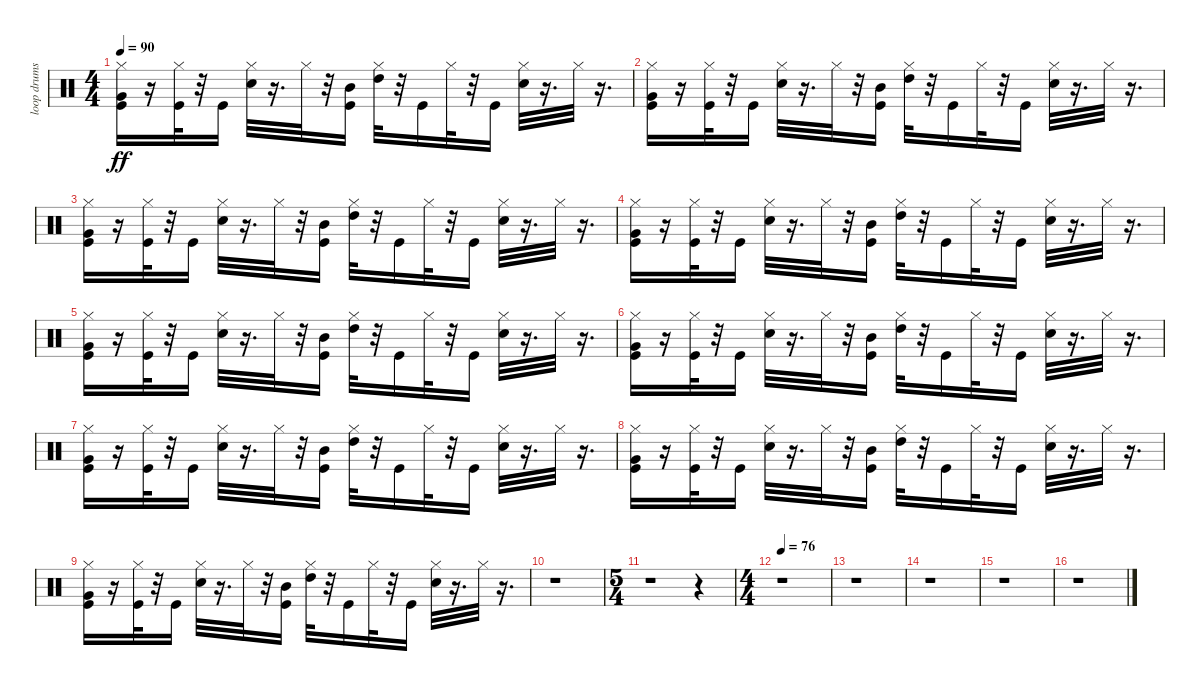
\track ("loop drums" "loop drums") {instrument percussion}
\staff {score}
\articulation defaults
\ts (4 4)
\tempo 90
\clef neutral
\ks c
("Very Low Tom (hit)" "Kick (hit)" "Hi-Hat (closed)").16{dy ff} r.16 ("Kick (hit)" "Hi-Hat (closed)").32 r.32 "Kick (hit)".16 ("Hi-Hat (closed)" "Electric Snare (hit)").32 r.16{d} "Hi-Hat (closed)".32 r.32 ("Kick (hit)" "Mid Tom (hit)").16 ("Hi-Hat (closed)" "High Tom (hit)").32 r.32 "Kick (hit)".16 "Hi-Hat (closed)".32 r.32 "Kick (hit)".16 ("Hi-Hat (closed)" "Electric Snare (hit)").32 r.16{d} "Hi-Hat (closed)".32 r.16{d} |
("Very Low Tom (hit)" "Kick (hit)" "Hi-Hat (closed)").16 r.16 ("Kick (hit)" "Hi-Hat (closed)").32 r.32 "Kick (hit)".16 ("Hi-Hat (closed)" "Electric Snare (hit)").32 r.16{d} "Hi-Hat (closed)".32 r.32 ("Kick (hit)" "Mid Tom (hit)").16 ("Hi-Hat (closed)" "High Tom (hit)").32 r.32 "Kick (hit)".16 "Hi-Hat (closed)".32 r.32 "Kick (hit)".16 ("Hi-Hat (closed)" "Electric Snare (hit)").32 r.16{d} "Hi-Hat (closed)".32 r.16{d} |
("Kick (hit)" "Hi-Hat (closed)" "Very Low Tom (hit)").16 r.16 ("Kick (hit)" "Hi-Hat (closed)").32 r.32 "Kick (hit)".16 ("Hi-Hat (closed)" "Electric Snare (hit)").32 r.16{d} "Hi-Hat (closed)".32 r.32 ("Kick (hit)" "Mid Tom (hit)").16 ("Hi-Hat (closed)" "High Tom (hit)").32 r.32 "Kick (hit)".16 "Hi-Hat (closed)".32 r.32 "Kick (hit)".16 ("Hi-Hat (closed)" "Electric Snare (hit)").32 r.16{d} "Hi-Hat (closed)".32 r.16{d} |
("Very Low Tom (hit)" "Kick (hit)" "Hi-Hat (closed)").16 r.16 ("Kick (hit)" "Hi-Hat (closed)").32 r.32 "Kick (hit)".16 ("Hi-Hat (closed)" "Electric Snare (hit)").32 r.16{d} "Hi-Hat (closed)".32 r.32 ("Kick (hit)" "Mid Tom (hit)").16 ("Hi-Hat (closed)" "High Tom (hit)").32 r.32 "Kick (hit)".16 "Hi-Hat (closed)".32 r.32 "Kick (hit)".16 ("Hi-Hat (closed)" "Electric Snare (hit)").32 r.16{d} "Hi-Hat (closed)".32 r.16{d} |
("Very Low Tom (hit)" "Kick (hit)" "Hi-Hat (closed)").16 r.16 ("Kick (hit)" "Hi-Hat (closed)").32 r.32 "Kick (hit)".16 ("Hi-Hat (closed)" "Electric Snare (hit)").32 r.16{d} "Hi-Hat (closed)".32 r.32 ("Kick (hit)" "Mid Tom (hit)").16 ("Hi-Hat (closed)" "High Tom (hit)").32 r.32 "Kick (hit)".16 "Hi-Hat (closed)".32 r.32 "Kick (hit)".16 ("Hi-Hat (closed)" "Electric Snare (hit)").32 r.16{d} "Hi-Hat (closed)".32 r.16{d} |
("Very Low Tom (hit)" "Kick (hit)" "Hi-Hat (closed)").16 r.16 ("Kick (hit)" "Hi-Hat (closed)").32 r.32 "Kick (hit)".16 ("Hi-Hat (closed)" "Electric Snare (hit)").32 r.16{d} "Hi-Hat (closed)".32 r.32 ("Kick (hit)" "Mid Tom (hit)").16 ("Hi-Hat (closed)" "High Tom (hit)").32 r.32 "Kick (hit)".16 "Hi-Hat (closed)".32 r.32 "Kick (hit)".16 ("Hi-Hat (closed)" "Electric Snare (hit)").32 r.16{d} "Hi-Hat (closed)".32 r.16{d} |
("Kick (hit)" "Hi-Hat (closed)" "Very Low Tom (hit)").16 r.16 ("Kick (hit)" "Hi-Hat (closed)").32 r.32 "Kick (hit)".16 ("Hi-Hat (closed)" "Electric Snare (hit)").32 r.16{d} "Hi-Hat (closed)".32 r.32 ("Kick (hit)" "Mid Tom (hit)").16 ("Hi-Hat (closed)" "High Tom (hit)").32 r.32 "Kick (hit)".16 "Hi-Hat (closed)".32 r.32 "Kick (hit)".16 ("Hi-Hat (closed)" "Electric Snare (hit)").32 r.16{d} "Hi-Hat (closed)".32 r.16{d} |
("Very Low Tom (hit)" "Kick (hit)" "Hi-Hat (closed)").16 r.16 ("Kick (hit)" "Hi-Hat (closed)").32 r.32 "Kick (hit)".16 ("Hi-Hat (closed)" "Electric Snare (hit)").32 r.16{d} "Hi-Hat (closed)".32 r.32 ("Kick (hit)" "Mid Tom (hit)").16 ("Hi-Hat (closed)" "High Tom (hit)").32 r.32 "Kick (hit)".16 "Hi-Hat (closed)".32 r.32 "Kick (hit)".16 ("Hi-Hat (closed)" "Electric Snare (hit)").32 r.16{d} "Hi-Hat (closed)".32 r.16{d} |
("Very Low Tom (hit)" "Kick (hit)" "Hi-Hat (closed)").16 r.16 ("Kick (hit)" "Hi-Hat (closed)").32 r.32 "Kick (hit)".16 ("Hi-Hat (closed)" "Electric Snare (hit)").32 r.16{d} "Hi-Hat (closed)".32 r.32 ("Kick (hit)" "Mid Tom (hit)").16 ("Hi-Hat (closed)" "High Tom (hit)").32 r.32 "Kick (hit)".16 "Hi-Hat (closed)".32 r.32 "Kick (hit)".16 ("Hi-Hat (closed)" "Electric Snare (hit)").32 r.16{d} "Hi-Hat (closed)".32 r.16{d} |
r.1 |
\ts (5 4)
r.1 r.4 |
\ts (4 4)
\tempo 76
r.1 |
r.1 |
r.1 |
r.1 |
r.1
